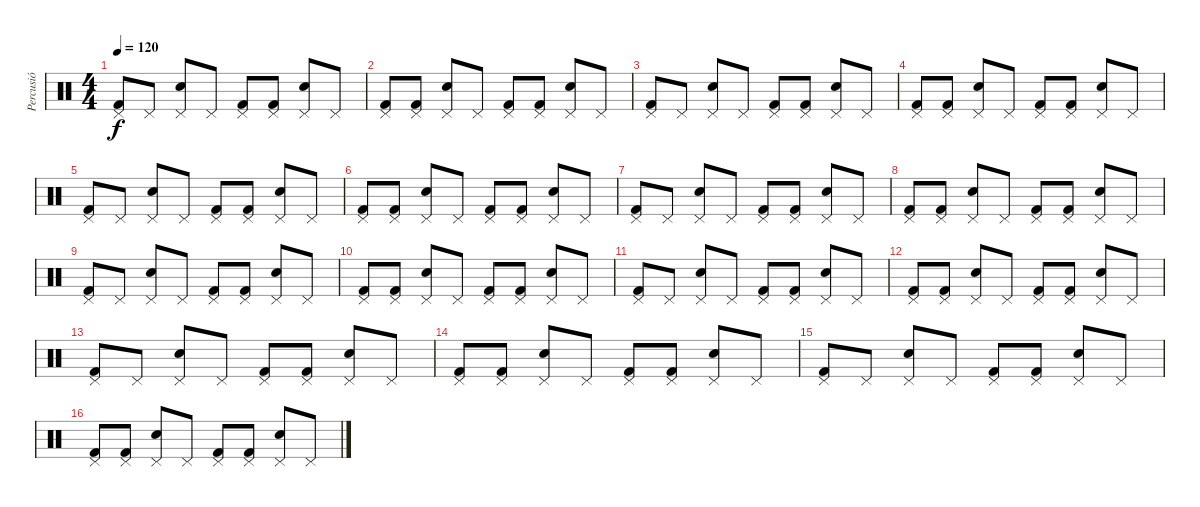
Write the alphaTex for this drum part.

\track ("Percusió" "Percusió") {instrument percussion}
\staff {score}
\articulation defaults
\ts (4 4)
\tempo 120
\clef neutral
\ks c
("Pedal Hi-Hat (hit)" "Kick (hit) 2").8{dy f} "Pedal Hi-Hat (hit)".8 ("Pedal Hi-Hat (hit)" "Snare (hit) 2").8 "Pedal Hi-Hat (hit)".8 ("Pedal Hi-Hat (hit)" "Kick (hit) 2").8 ("Pedal Hi-Hat (hit)" "Kick (hit) 2").8 ("Pedal Hi-Hat (hit)" "Snare (hit) 2").8 "Pedal Hi-Hat (hit)".8 |
("Pedal Hi-Hat (hit)" "Kick (hit) 2").8 ("Pedal Hi-Hat (hit)" "Kick (hit) 2").8 ("Pedal Hi-Hat (hit)" "Snare (hit) 2").8 "Pedal Hi-Hat (hit)".8 ("Pedal Hi-Hat (hit)" "Kick (hit) 2").8 ("Pedal Hi-Hat (hit)" "Kick (hit) 2").8 ("Pedal Hi-Hat (hit)" "Snare (hit) 2").8 "Pedal Hi-Hat (hit)".8 |
("Pedal Hi-Hat (hit)" "Kick (hit) 2").8 "Pedal Hi-Hat (hit)".8 ("Pedal Hi-Hat (hit)" "Snare (hit) 2").8 "Pedal Hi-Hat (hit)".8 ("Pedal Hi-Hat (hit)" "Kick (hit) 2").8 ("Pedal Hi-Hat (hit)" "Kick (hit) 2").8 ("Pedal Hi-Hat (hit)" "Snare (hit) 2").8 "Pedal Hi-Hat (hit)".8 |
("Pedal Hi-Hat (hit)" "Kick (hit) 2").8 ("Pedal Hi-Hat (hit)" "Kick (hit) 2").8 ("Pedal Hi-Hat (hit)" "Snare (hit) 2").8 "Pedal Hi-Hat (hit)".8 ("Pedal Hi-Hat (hit)" "Kick (hit) 2").8 ("Pedal Hi-Hat (hit)" "Kick (hit) 2").8 ("Pedal Hi-Hat (hit)" "Snare (hit) 2").8 "Pedal Hi-Hat (hit)".8 |
("Pedal Hi-Hat (hit)" "Kick (hit) 2").8 "Pedal Hi-Hat (hit)".8 ("Pedal Hi-Hat (hit)" "Snare (hit) 2").8 "Pedal Hi-Hat (hit)".8 ("Pedal Hi-Hat (hit)" "Kick (hit) 2").8 ("Pedal Hi-Hat (hit)" "Kick (hit) 2").8 ("Pedal Hi-Hat (hit)" "Snare (hit) 2").8 "Pedal Hi-Hat (hit)".8 |
("Pedal Hi-Hat (hit)" "Kick (hit) 2").8 ("Pedal Hi-Hat (hit)" "Kick (hit) 2").8 ("Pedal Hi-Hat (hit)" "Snare (hit) 2").8 "Pedal Hi-Hat (hit)".8 ("Pedal Hi-Hat (hit)" "Kick (hit) 2").8 ("Pedal Hi-Hat (hit)" "Kick (hit) 2").8 ("Pedal Hi-Hat (hit)" "Snare (hit) 2").8 "Pedal Hi-Hat (hit)".8 |
("Pedal Hi-Hat (hit)" "Kick (hit) 2").8 "Pedal Hi-Hat (hit)".8 ("Pedal Hi-Hat (hit)" "Snare (hit) 2").8 "Pedal Hi-Hat (hit)".8 ("Pedal Hi-Hat (hit)" "Kick (hit) 2").8 ("Pedal Hi-Hat (hit)" "Kick (hit) 2").8 ("Pedal Hi-Hat (hit)" "Snare (hit) 2").8 "Pedal Hi-Hat (hit)".8 |
("Pedal Hi-Hat (hit)" "Kick (hit) 2").8 ("Pedal Hi-Hat (hit)" "Kick (hit) 2").8 ("Pedal Hi-Hat (hit)" "Snare (hit) 2").8 "Pedal Hi-Hat (hit)".8 ("Pedal Hi-Hat (hit)" "Kick (hit) 2").8 ("Pedal Hi-Hat (hit)" "Kick (hit) 2").8 ("Pedal Hi-Hat (hit)" "Snare (hit) 2").8 "Pedal Hi-Hat (hit)".8 |
("Pedal Hi-Hat (hit)" "Kick (hit) 2").8 "Pedal Hi-Hat (hit)".8 ("Pedal Hi-Hat (hit)" "Snare (hit) 2").8 "Pedal Hi-Hat (hit)".8 ("Pedal Hi-Hat (hit)" "Kick (hit) 2").8 ("Pedal Hi-Hat (hit)" "Kick (hit) 2").8 ("Pedal Hi-Hat (hit)" "Snare (hit) 2").8 "Pedal Hi-Hat (hit)".8 |
("Pedal Hi-Hat (hit)" "Kick (hit) 2").8 ("Pedal Hi-Hat (hit)" "Kick (hit) 2").8 ("Pedal Hi-Hat (hit)" "Snare (hit) 2").8 "Pedal Hi-Hat (hit)".8 ("Pedal Hi-Hat (hit)" "Kick (hit) 2").8 ("Pedal Hi-Hat (hit)" "Kick (hit) 2").8 ("Pedal Hi-Hat (hit)" "Snare (hit) 2").8 "Pedal Hi-Hat (hit)".8 |
("Pedal Hi-Hat (hit)" "Kick (hit) 2").8 "Pedal Hi-Hat (hit)".8 ("Pedal Hi-Hat (hit)" "Snare (hit) 2").8 "Pedal Hi-Hat (hit)".8 ("Pedal Hi-Hat (hit)" "Kick (hit) 2").8 ("Pedal Hi-Hat (hit)" "Kick (hit) 2").8 ("Pedal Hi-Hat (hit)" "Snare (hit) 2").8 "Pedal Hi-Hat (hit)".8 |
("Pedal Hi-Hat (hit)" "Kick (hit) 2").8 ("Pedal Hi-Hat (hit)" "Kick (hit) 2").8 ("Pedal Hi-Hat (hit)" "Snare (hit) 2").8 "Pedal Hi-Hat (hit)".8 ("Pedal Hi-Hat (hit)" "Kick (hit) 2").8 ("Pedal Hi-Hat (hit)" "Kick (hit) 2").8 ("Pedal Hi-Hat (hit)" "Snare (hit) 2").8 "Pedal Hi-Hat (hit)".8 |
("Pedal Hi-Hat (hit)" "Kick (hit) 2").8 "Pedal Hi-Hat (hit)".8 ("Pedal Hi-Hat (hit)" "Snare (hit) 2").8 "Pedal Hi-Hat (hit)".8 ("Pedal Hi-Hat (hit)" "Kick (hit) 2").8 ("Pedal Hi-Hat (hit)" "Kick (hit) 2").8 ("Pedal Hi-Hat (hit)" "Snare (hit) 2").8 "Pedal Hi-Hat (hit)".8 |
("Pedal Hi-Hat (hit)" "Kick (hit) 2").8 ("Pedal Hi-Hat (hit)" "Kick (hit) 2").8 ("Pedal Hi-Hat (hit)" "Snare (hit) 2").8 "Pedal Hi-Hat (hit)".8 ("Pedal Hi-Hat (hit)" "Kick (hit) 2").8 ("Pedal Hi-Hat (hit)" "Kick (hit) 2").8 ("Pedal Hi-Hat (hit)" "Snare (hit) 2").8 "Pedal Hi-Hat (hit)".8 |
("Pedal Hi-Hat (hit)" "Kick (hit) 2").8 "Pedal Hi-Hat (hit)".8 ("Pedal Hi-Hat (hit)" "Snare (hit) 2").8 "Pedal Hi-Hat (hit)".8 ("Pedal Hi-Hat (hit)" "Kick (hit) 2").8 ("Pedal Hi-Hat (hit)" "Kick (hit) 2").8 ("Pedal Hi-Hat (hit)" "Snare (hit) 2").8 "Pedal Hi-Hat (hit)".8 |
("Pedal Hi-Hat (hit)" "Kick (hit) 2").8 ("Pedal Hi-Hat (hit)" "Kick (hit) 2").8 ("Pedal Hi-Hat (hit)" "Snare (hit) 2").8 "Pedal Hi-Hat (hit)".8 ("Pedal Hi-Hat (hit)" "Kick (hit) 2").8 ("Pedal Hi-Hat (hit)" "Kick (hit) 2").8 ("Pedal Hi-Hat (hit)" "Snare (hit) 2").8 "Pedal Hi-Hat (hit)".8
